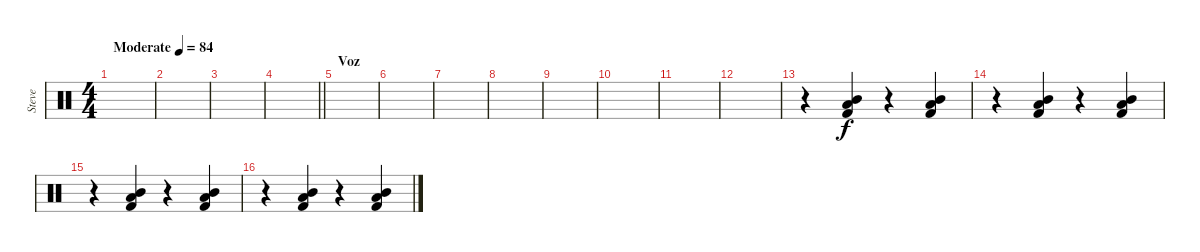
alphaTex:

\track ("Steve" "Steve") {instrument percussion}
\staff {score}
\articulation defaults
\ts (4 4)
\tempo (84 "Moderate")
\clef neutral
\ks c
|
|
|
\barLineRight lightlight
|
\section ("" "Voz")
|
|
|
|
|
|
|
|
r.4 ("Low Tom (hit)" "Mid Tom (hit)" "Kick (hit) 2").4 r.4 ("Low Tom (hit)" "Mid Tom (hit)" "Kick (hit) 2").4 |
r.4 ("Low Tom (hit)" "Mid Tom (hit)" "Kick (hit) 2").4 r.4 ("Low Tom (hit)" "Mid Tom (hit)" "Kick (hit) 2").4 |
r.4 ("Low Tom (hit)" "Mid Tom (hit)" "Kick (hit) 2").4 r.4 ("Low Tom (hit)" "Mid Tom (hit)" "Kick (hit) 2").4 |
r.4 ("Low Tom (hit)" "Mid Tom (hit)" "Kick (hit) 2").4 r.4 ("Low Tom (hit)" "Mid Tom (hit)" "Kick (hit) 2").4
